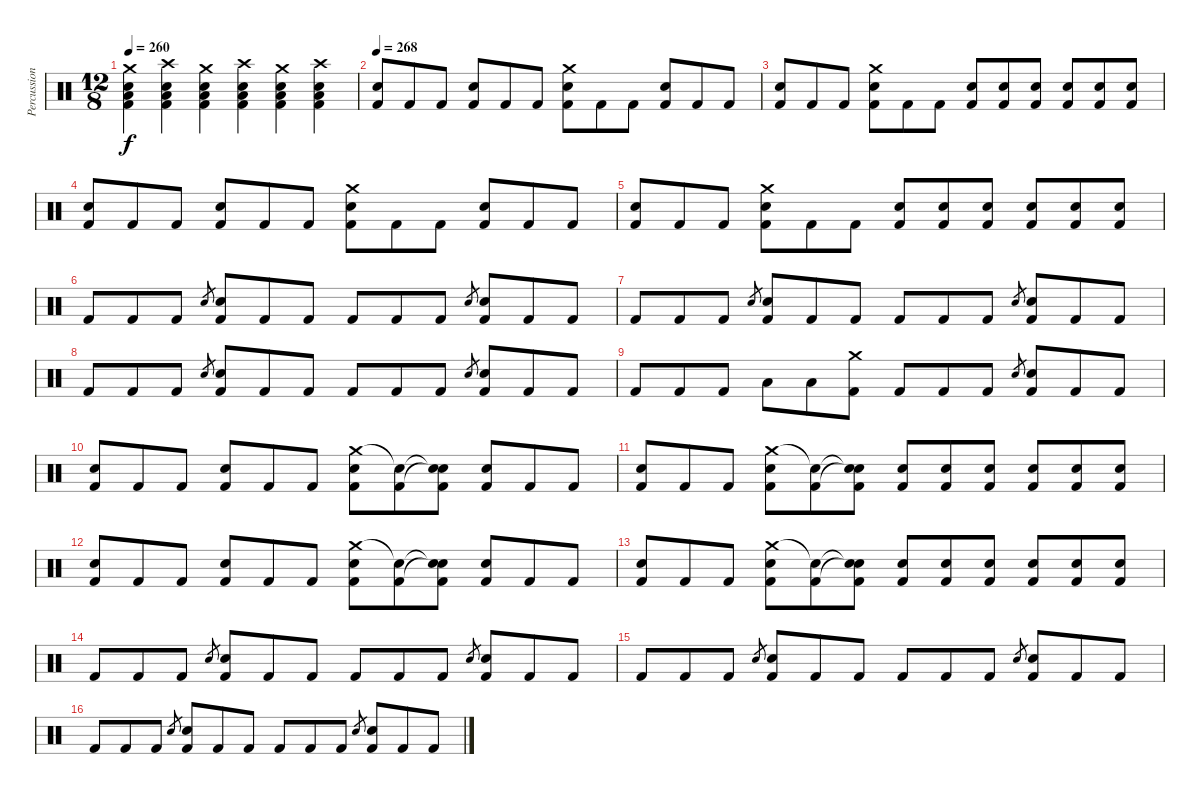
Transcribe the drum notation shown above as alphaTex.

\track ("Percussion" "Percussion") {instrument percussion}
\staff {score}
\articulation defaults
\ts (12 8)
\tempo 260
\clef neutral
\ks c
("Crash medium (hit)" "Low Floor Tom (hit)" "Electric Snare (hit)" "Kick (hit) 2").4{dy f} ("Crash high (hit)" "Low Floor Tom (hit)" "Electric Snare (hit)" "Kick (hit) 2").4 ("Crash medium (hit)" "Low Floor Tom (hit)" "Electric Snare (hit)" "Kick (hit) 2").4 ("Crash high (hit)" "Low Floor Tom (hit)" "Electric Snare (hit)" "Kick (hit) 2").4 ("Crash medium (hit)" "Low Floor Tom (hit)" "Electric Snare (hit)" "Kick (hit) 2").4 ("Crash high (hit)" "Low Floor Tom (hit)" "Electric Snare (hit)" "Kick (hit) 2").4 |
\tempo 268
("Electric Snare (hit)" "Kick (hit) 2").8 "Kick (hit) 2".8 "Kick (hit) 2".8 ("Electric Snare (hit)" "Kick (hit) 2").8 "Kick (hit) 2".8 "Kick (hit) 2".8 ("Crash medium (hit)" "Electric Snare (hit)" "Kick (hit) 2").8 "Kick (hit) 2".8 "Kick (hit) 2".8 ("Electric Snare (hit)" "Kick (hit) 2").8 "Kick (hit) 2".8 "Kick (hit) 2".8 |
("Electric Snare (hit)" "Kick (hit) 2").8 "Kick (hit) 2".8 "Kick (hit) 2".8 ("Crash medium (hit)" "Electric Snare (hit)" "Kick (hit) 2").8 "Kick (hit) 2".8 "Kick (hit) 2".8 ("Electric Snare (hit)" "Kick (hit) 2").8 ("Electric Snare (hit)" "Kick (hit) 2").8 ("Electric Snare (hit)" "Kick (hit) 2").8 ("Electric Snare (hit)" "Kick (hit) 2").8 ("Electric Snare (hit)" "Kick (hit) 2").8 ("Electric Snare (hit)" "Kick (hit) 2").8 |
("Electric Snare (hit)" "Kick (hit) 2").8 "Kick (hit) 2".8 "Kick (hit) 2".8 ("Electric Snare (hit)" "Kick (hit) 2").8 "Kick (hit) 2".8 "Kick (hit) 2".8 ("Crash medium (hit)" "Electric Snare (hit)" "Kick (hit) 2").8 "Kick (hit) 2".8 "Kick (hit) 2".8 ("Electric Snare (hit)" "Kick (hit) 2").8 "Kick (hit) 2".8 "Kick (hit) 2".8 |
("Electric Snare (hit)" "Kick (hit) 2").8 "Kick (hit) 2".8 "Kick (hit) 2".8 ("Crash medium (hit)" "Electric Snare (hit)" "Kick (hit) 2").8 "Kick (hit) 2".8 "Kick (hit) 2".8 ("Electric Snare (hit)" "Kick (hit) 2").8 ("Electric Snare (hit)" "Kick (hit) 2").8 ("Electric Snare (hit)" "Kick (hit) 2").8 ("Electric Snare (hit)" "Kick (hit) 2").8 ("Electric Snare (hit)" "Kick (hit) 2").8 ("Electric Snare (hit)" "Kick (hit) 2").8 |
"Kick (hit) 2".8 "Kick (hit) 2".8 "Kick (hit) 2".8 "Electric Snare (hit)".8{gr} ("Electric Snare (hit)" "Kick (hit) 2").8 "Kick (hit) 2".8 "Kick (hit) 2".8 "Kick (hit) 2".8 "Kick (hit) 2".8 "Kick (hit) 2".8 "Electric Snare (hit)".8{gr} ("Electric Snare (hit)" "Kick (hit) 2").8 "Kick (hit) 2".8 "Kick (hit) 2".8 |
"Kick (hit) 2".8 "Kick (hit) 2".8 "Kick (hit) 2".8 "Electric Snare (hit)".8{gr} ("Electric Snare (hit)" "Kick (hit) 2").8 "Kick (hit) 2".8 "Kick (hit) 2".8 "Kick (hit) 2".8 "Kick (hit) 2".8 "Kick (hit) 2".8 "Electric Snare (hit)".8{gr} ("Electric Snare (hit)" "Kick (hit) 2").8 "Kick (hit) 2".8 "Kick (hit) 2".8 |
"Kick (hit) 2".8 "Kick (hit) 2".8 "Kick (hit) 2".8 "Electric Snare (hit)".8{gr} ("Electric Snare (hit)" "Kick (hit) 2").8 "Kick (hit) 2".8 "Kick (hit) 2".8 "Kick (hit) 2".8 "Kick (hit) 2".8 "Kick (hit) 2".8 "Electric Snare (hit)".8{gr} ("Electric Snare (hit)" "Kick (hit) 2").8 "Kick (hit) 2".8 "Kick (hit) 2".8 |
"Kick (hit) 2".8 "Kick (hit) 2".8 "Kick (hit) 2".8 "Low Tom (hit)".8 "Low Floor Tom (hit)".8 ("Crash medium (hit)" "Kick (hit) 2").8 "Kick (hit) 2".8 "Kick (hit) 2".8 "Kick (hit) 2".8 "Electric Snare (hit)".8{gr} ("Electric Snare (hit)" "Kick (hit) 2").8 "Kick (hit) 2".8 "Kick (hit) 2".8 |
("Electric Snare (hit)" "Kick (hit) 2").8 "Kick (hit) 2".8 "Kick (hit) 2".8 ("Electric Snare (hit)" "Kick (hit) 2").8 "Kick (hit) 2".8 "Kick (hit) 2".8 ("Crash medium (hit)" "Electric Snare (hit)" "Kick (hit) 2").8 ("Snare (hit)"{t} "Kick (hit) 2").8 ("Snare (hit)"{t} "Snare (hit)"{t} "Kick (hit) 2").8 ("Electric Snare (hit)" "Kick (hit) 2").8 "Kick (hit) 2".8 "Kick (hit) 2".8 |
("Electric Snare (hit)" "Kick (hit) 2").8 "Kick (hit) 2".8 "Kick (hit) 2".8 ("Crash medium (hit)" "Electric Snare (hit)" "Kick (hit) 2").8 ("Snare (hit)"{t} "Kick (hit) 2").8 ("Snare (hit)"{t} "Snare (hit)"{t} "Kick (hit) 2").8 ("Electric Snare (hit)" "Kick (hit) 2").8 ("Electric Snare (hit)" "Kick (hit) 2").8 ("Electric Snare (hit)" "Kick (hit) 2").8 ("Electric Snare (hit)" "Kick (hit) 2").8 ("Electric Snare (hit)" "Kick (hit) 2").8 ("Electric Snare (hit)" "Kick (hit) 2").8 |
("Electric Snare (hit)" "Kick (hit) 2").8 "Kick (hit) 2".8 "Kick (hit) 2".8 ("Electric Snare (hit)" "Kick (hit) 2").8 "Kick (hit) 2".8 "Kick (hit) 2".8 ("Crash medium (hit)" "Electric Snare (hit)" "Kick (hit) 2").8 ("Snare (hit)"{t} "Kick (hit) 2").8 ("Snare (hit)"{t} "Snare (hit)"{t} "Kick (hit) 2").8 ("Electric Snare (hit)" "Kick (hit) 2").8 "Kick (hit) 2".8 "Kick (hit) 2".8 |
("Electric Snare (hit)" "Kick (hit) 2").8 "Kick (hit) 2".8 "Kick (hit) 2".8 ("Crash medium (hit)" "Electric Snare (hit)" "Kick (hit) 2").8 ("Snare (hit)"{t} "Kick (hit) 2").8 ("Snare (hit)"{t} "Snare (hit)"{t} "Kick (hit) 2").8 ("Electric Snare (hit)" "Kick (hit) 2").8 ("Electric Snare (hit)" "Kick (hit) 2").8 ("Electric Snare (hit)" "Kick (hit) 2").8 ("Electric Snare (hit)" "Kick (hit) 2").8 ("Electric Snare (hit)" "Kick (hit) 2").8 ("Electric Snare (hit)" "Kick (hit) 2").8 |
"Kick (hit) 2".8 "Kick (hit) 2".8 "Kick (hit) 2".8 "Electric Snare (hit)".8{gr} ("Electric Snare (hit)" "Kick (hit) 2").8 "Kick (hit) 2".8 "Kick (hit) 2".8 "Kick (hit) 2".8 "Kick (hit) 2".8 "Kick (hit) 2".8 "Electric Snare (hit)".8{gr} ("Electric Snare (hit)" "Kick (hit) 2").8 "Kick (hit) 2".8 "Kick (hit) 2".8 |
"Kick (hit) 2".8 "Kick (hit) 2".8 "Kick (hit) 2".8 "Electric Snare (hit)".8{gr} ("Electric Snare (hit)" "Kick (hit) 2").8 "Kick (hit) 2".8 "Kick (hit) 2".8 "Kick (hit) 2".8 "Kick (hit) 2".8 "Kick (hit) 2".8 "Electric Snare (hit)".8{gr} ("Electric Snare (hit)" "Kick (hit) 2").8 "Kick (hit) 2".8 "Kick (hit) 2".8 |
"Kick (hit) 2".8 "Kick (hit) 2".8 "Kick (hit) 2".8 "Electric Snare (hit)".8{gr} ("Electric Snare (hit)" "Kick (hit) 2").8 "Kick (hit) 2".8 "Kick (hit) 2".8 "Kick (hit) 2".8 "Kick (hit) 2".8 "Kick (hit) 2".8 "Electric Snare (hit)".8{gr} ("Electric Snare (hit)" "Kick (hit) 2").8 "Kick (hit) 2".8 "Kick (hit) 2".8
